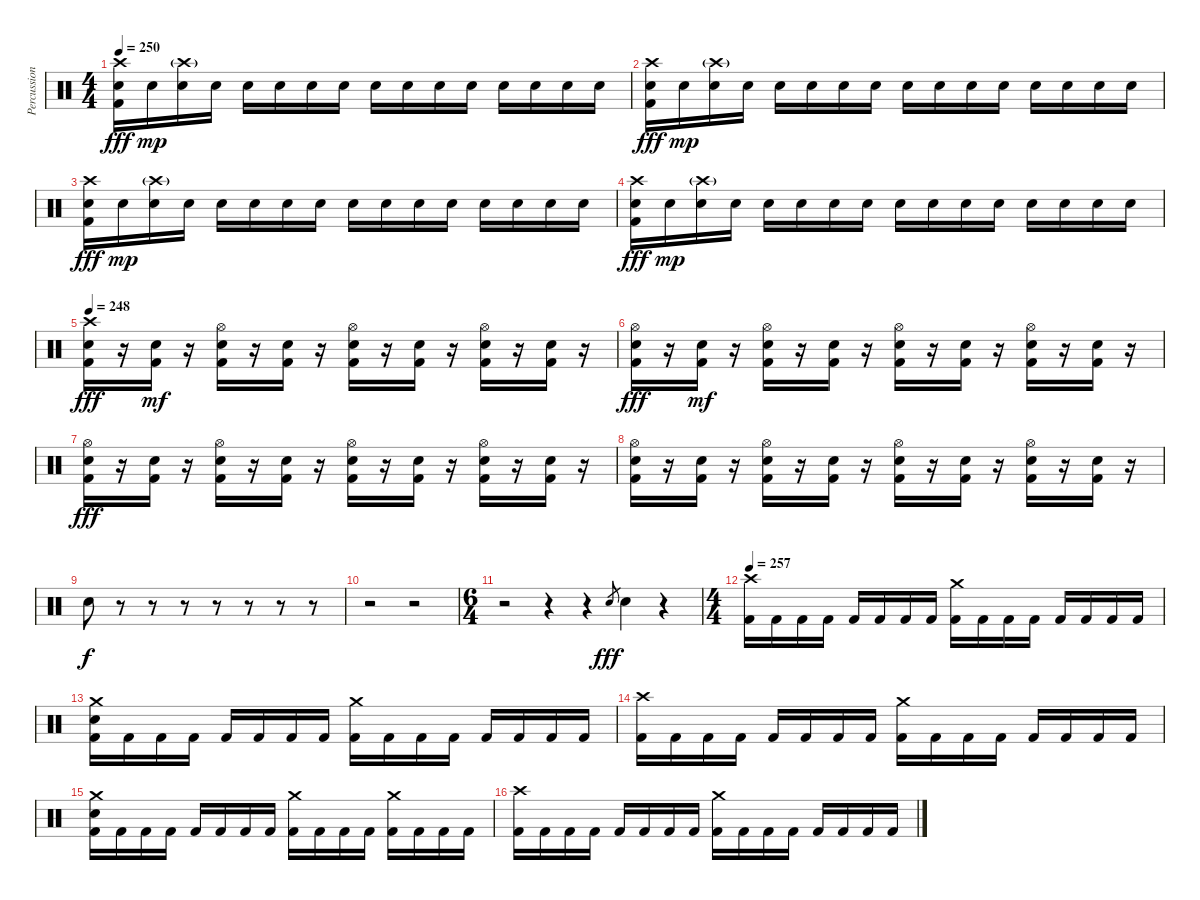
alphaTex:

\track ("Percussion" "Percussion") {instrument percussion}
\staff {score}
\articulation defaults
\ts (4 4)
\tempo 250
\clef neutral
\ks c
("Crash high (hit)" "Electric Snare (hit)" "Kick (hit) 2").16{dy fff} "Electric Snare (hit)".16{dy mp} ("Crash high (hit)"{g} "Electric Snare (hit)").16 "Electric Snare (hit)".16 "Electric Snare (hit)".16 "Electric Snare (hit)".16 "Electric Snare (hit)".16 "Electric Snare (hit)".16 "Electric Snare (hit)".16 "Electric Snare (hit)".16 "Electric Snare (hit)".16 "Electric Snare (hit)".16 "Electric Snare (hit)".16 "Electric Snare (hit)".16 "Electric Snare (hit)".16 "Electric Snare (hit)".16 |
("Crash high (hit)" "Electric Snare (hit)" "Kick (hit) 2").16{dy fff} "Electric Snare (hit)".16{dy mp} ("Crash high (hit)"{g} "Electric Snare (hit)").16 "Electric Snare (hit)".16 "Electric Snare (hit)".16 "Electric Snare (hit)".16 "Electric Snare (hit)".16 "Electric Snare (hit)".16 "Electric Snare (hit)".16 "Electric Snare (hit)".16 "Electric Snare (hit)".16 "Electric Snare (hit)".16 "Electric Snare (hit)".16 "Electric Snare (hit)".16 "Electric Snare (hit)".16 "Electric Snare (hit)".16 |
("Crash high (hit)" "Electric Snare (hit)" "Kick (hit) 2").16{dy fff} "Electric Snare (hit)".16{dy mp} ("Crash high (hit)"{g} "Electric Snare (hit)").16 "Electric Snare (hit)".16 "Electric Snare (hit)".16 "Electric Snare (hit)".16 "Electric Snare (hit)".16 "Electric Snare (hit)".16 "Electric Snare (hit)".16 "Electric Snare (hit)".16 "Electric Snare (hit)".16 "Electric Snare (hit)".16 "Electric Snare (hit)".16 "Electric Snare (hit)".16 "Electric Snare (hit)".16 "Electric Snare (hit)".16 |
("Crash high (hit)" "Electric Snare (hit)" "Kick (hit) 2").16{dy fff} "Electric Snare (hit)".16{dy mp} ("Crash high (hit)"{g} "Electric Snare (hit)").16 "Electric Snare (hit)".16 "Electric Snare (hit)".16 "Electric Snare (hit)".16 "Electric Snare (hit)".16 "Electric Snare (hit)".16 "Electric Snare (hit)".16 "Electric Snare (hit)".16 "Electric Snare (hit)".16 "Electric Snare (hit)".16 "Electric Snare (hit)".16 "Electric Snare (hit)".16 "Electric Snare (hit)".16 "Electric Snare (hit)".16 |
\tempo 248
("Crash high (hit)" "Electric Snare (hit)" "Kick (hit) 2").16{dy fff} r.16 ("Electric Snare (hit)" "Kick (hit) 2").16{dy mf} r.16 ("Hi-Hat (open)" "Electric Snare (hit)" "Kick (hit) 2").16 r.16 ("Electric Snare (hit)" "Kick (hit) 2").16 r.16 ("Hi-Hat (open)" "Electric Snare (hit)" "Kick (hit) 2").16 r.16 ("Electric Snare (hit)" "Kick (hit) 2").16 r.16 ("Hi-Hat (open)" "Electric Snare (hit)" "Kick (hit) 2").16 r.16 ("Electric Snare (hit)" "Kick (hit) 2").16 r.16 |
("Hi-Hat (open)" "Electric Snare (hit)" "Kick (hit) 2").16{dy fff} r.16 ("Electric Snare (hit)" "Kick (hit) 2").16{dy mf} r.16 ("Hi-Hat (open)" "Electric Snare (hit)" "Kick (hit) 2").16 r.16 ("Electric Snare (hit)" "Kick (hit) 2").16 r.16 ("Hi-Hat (open)" "Electric Snare (hit)" "Kick (hit) 2").16 r.16 ("Electric Snare (hit)" "Kick (hit) 2").16 r.16 ("Hi-Hat (open)" "Electric Snare (hit)" "Kick (hit) 2").16 r.16 ("Electric Snare (hit)" "Kick (hit) 2").16 r.16 |
("Hi-Hat (open)" "Electric Snare (hit)" "Kick (hit) 2").16{dy fff} r.16 ("Electric Snare (hit)" "Kick (hit) 2").16 r.16 ("Hi-Hat (open)" "Electric Snare (hit)" "Kick (hit) 2").16 r.16 ("Electric Snare (hit)" "Kick (hit) 2").16 r.16 ("Hi-Hat (open)" "Electric Snare (hit)" "Kick (hit) 2").16 r.16 ("Electric Snare (hit)" "Kick (hit) 2").16 r.16 ("Hi-Hat (open)" "Electric Snare (hit)" "Kick (hit) 2").16 r.16 ("Electric Snare (hit)" "Kick (hit) 2").16 r.16 |
("Hi-Hat (open)" "Electric Snare (hit)" "Kick (hit) 2").16 r.16 ("Electric Snare (hit)" "Kick (hit) 2").16 r.16 ("Hi-Hat (open)" "Electric Snare (hit)" "Kick (hit) 2").16 r.16 ("Electric Snare (hit)" "Kick (hit) 2").16 r.16 ("Hi-Hat (open)" "Electric Snare (hit)" "Kick (hit) 2").16 r.16 ("Electric Snare (hit)" "Kick (hit) 2").16 r.16 ("Hi-Hat (open)" "Electric Snare (hit)" "Kick (hit) 2").16 r.16 ("Electric Snare (hit)" "Kick (hit) 2").16 r.16 |
"Electric Snare (hit)".8{dy f} r.8 r.8 r.8 r.8 r.8 r.8 r.8 |
r.2 r.2 |
\ts (6 4)
r.2 r.4 r.4 "Electric Snare (hit)".8{gr dy fff} "Electric Snare (hit)".4 r.4 |
\ts (4 4)
\tempo 257
("Crash high (hit)" "Kick (hit) 2").16 "Kick (hit) 2".16 "Kick (hit) 2".16 "Kick (hit) 2".16 "Kick (hit) 2".16 "Kick (hit) 2".16 "Kick (hit) 2".16 "Kick (hit) 2".16 ("Crash medium (hit)" "Kick (hit) 2").16 "Kick (hit) 2".16 "Kick (hit) 2".16 "Kick (hit) 2".16 "Kick (hit) 2".16 "Kick (hit) 2".16 "Kick (hit) 2".16 "Kick (hit) 2".16 |
("Crash medium (hit)" "Electric Snare (hit)" "Kick (hit) 2").16 "Kick (hit) 2".16 "Kick (hit) 2".16 "Kick (hit) 2".16 "Kick (hit) 2".16 "Kick (hit) 2".16 "Kick (hit) 2".16 "Kick (hit) 2".16 ("Crash medium (hit)" "Kick (hit) 2").16 "Kick (hit) 2".16 "Kick (hit) 2".16 "Kick (hit) 2".16 "Kick (hit) 2".16 "Kick (hit) 2".16 "Kick (hit) 2".16 "Kick (hit) 2".16 |
("Crash high (hit)" "Kick (hit) 2").16 "Kick (hit) 2".16 "Kick (hit) 2".16 "Kick (hit) 2".16 "Kick (hit) 2".16 "Kick (hit) 2".16 "Kick (hit) 2".16 "Kick (hit) 2".16 ("Crash medium (hit)" "Kick (hit) 2").16 "Kick (hit) 2".16 "Kick (hit) 2".16 "Kick (hit) 2".16 "Kick (hit) 2".16 "Kick (hit) 2".16 "Kick (hit) 2".16 "Kick (hit) 2".16 |
("Crash medium (hit)" "Electric Snare (hit)" "Kick (hit) 2").16 "Kick (hit) 2".16 "Kick (hit) 2".16 "Kick (hit) 2".16 "Kick (hit) 2".16 "Kick (hit) 2".16 "Kick (hit) 2".16 "Kick (hit) 2".16 ("Crash medium (hit)" "Kick (hit) 2").16 "Kick (hit) 2".16 "Kick (hit) 2".16 "Kick (hit) 2".16 ("Crash medium (hit)" "Kick (hit) 2").16 "Kick (hit) 2".16 "Kick (hit) 2".16 "Kick (hit) 2".16 |
("Crash high (hit)" "Kick (hit) 2").16 "Kick (hit) 2".16 "Kick (hit) 2".16 "Kick (hit) 2".16 "Kick (hit) 2".16 "Kick (hit) 2".16 "Kick (hit) 2".16 "Kick (hit) 2".16 ("Crash medium (hit)" "Kick (hit) 2").16 "Kick (hit) 2".16 "Kick (hit) 2".16 "Kick (hit) 2".16 "Kick (hit) 2".16 "Kick (hit) 2".16 "Kick (hit) 2".16 "Kick (hit) 2".16
